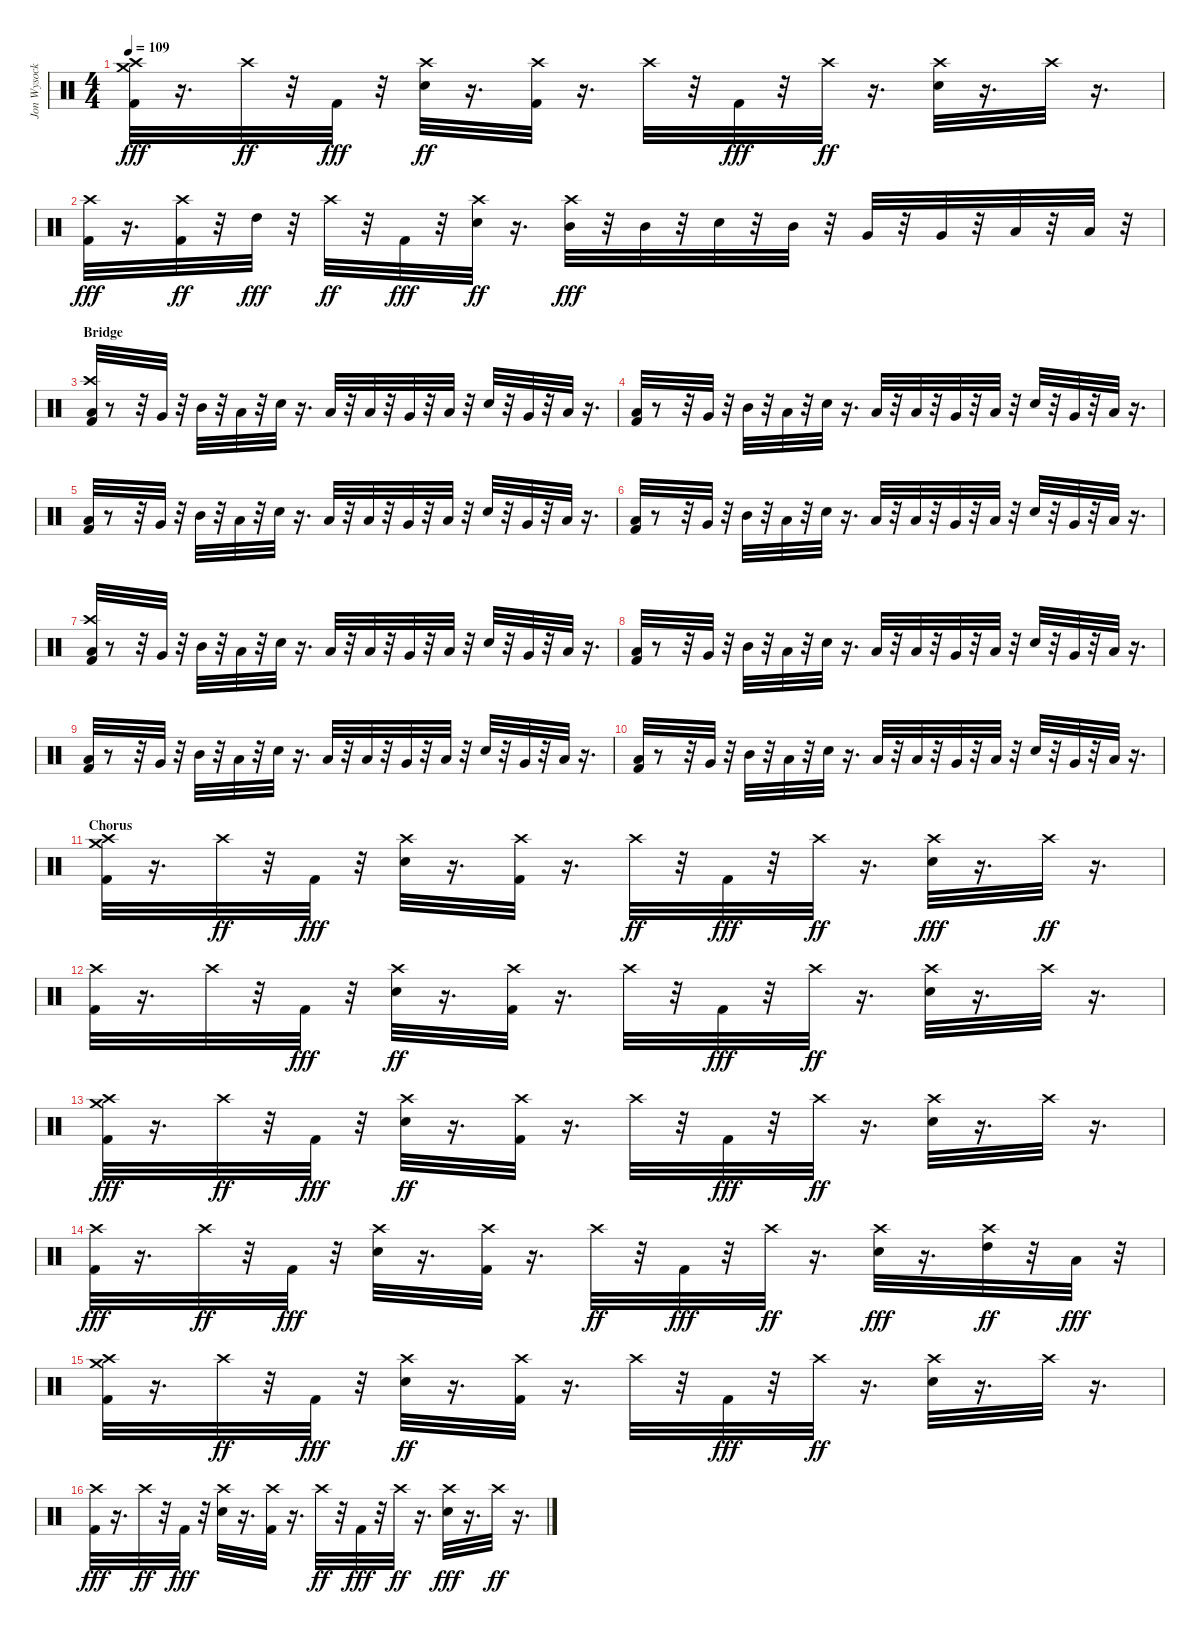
\track ("Jon Wysocki - Drums" "Jon Wysock") {instrument percussion}
\staff {score}
\articulation defaults
\ts (4 4)
\tempo 109
\clef neutral
\ks c
("Kick (hit) 2" "Crash high (hit)" "Crash medium (hit)").32{dy fff} r.16{d} "Crash high (hit)".32{dy ff} r.32 "Kick (hit) 2".32{dy fff} r.32 ("Electric Snare (hit)" "Crash high (hit)").32{dy ff} r.16{d} ("Kick (hit) 2" "Crash high (hit)").32 r.16{d} "Crash high (hit)".32 r.32 "Kick (hit) 2".32{dy fff} r.32 "Crash high (hit)".32{dy ff} r.16{d} ("Electric Snare (hit)" "Crash high (hit)").32 r.16{d} "Crash high (hit)".32 r.16{d} |
("Crash high (hit)" "Kick (hit) 2").32{dy fff} r.16{d} ("Kick (hit) 2" "Crash high (hit)").32{dy ff} r.32 "High Tom (hit)".32{dy fff} r.32 "Crash high (hit)".32{dy ff} r.32 "Kick (hit) 2".32{dy fff} r.32 ("Electric Snare (hit)" "Crash high (hit)").32{dy ff} r.16{d} ("Crash high (hit)" "Mid Tom (hit)").32{dy fff} r.32 "Mid Tom (hit)".32 r.32 "Electric Snare (hit)".32 r.32 "Mid Tom (hit)".32 r.32 "Very Low Tom (hit)".32 r.32 "Very Low Tom (hit)".32 r.32 "Low Floor Tom (hit)".32 r.32 "Low Floor Tom (hit)".32 r.32 |
\section ("" "Bridge")
("Low Tom (hit)" "Crash high (hit)" "Kick (hit) 2").32 r.8 r.32 "Very Low Tom (hit)".32 r.32 "Mid Tom (hit)".32 r.32 "Low Floor Tom (hit)".32 r.32 "Electric Snare (hit)".32 r.16{d} "Low Tom (hit)".32 r.32 "Low Tom (hit)".32 r.32 "Very Low Tom (hit)".32 r.32 "Low Floor Tom (hit)".32 r.32 "Electric Snare (hit)".32 r.32 "Very Low Tom (hit)".32 r.32 "Low Floor Tom (hit)".32 r.16{d} |
("Low Tom (hit)" "Kick (hit) 2").32 r.8 r.32 "Very Low Tom (hit)".32 r.32 "Mid Tom (hit)".32 r.32 "Low Floor Tom (hit)".32 r.32 "Electric Snare (hit)".32 r.16{d} "Low Tom (hit)".32 r.32 "Low Tom (hit)".32 r.32 "Very Low Tom (hit)".32 r.32 "Low Floor Tom (hit)".32 r.32 "Electric Snare (hit)".32 r.32 "Very Low Tom (hit)".32 r.32 "Low Floor Tom (hit)".32 r.16{d} |
("Low Tom (hit)" "Kick (hit) 2").32 r.8 r.32 "Very Low Tom (hit)".32 r.32 "Mid Tom (hit)".32 r.32 "Low Floor Tom (hit)".32 r.32 "Electric Snare (hit)".32 r.16{d} "Low Tom (hit)".32 r.32 "Low Tom (hit)".32 r.32 "Very Low Tom (hit)".32 r.32 "Low Floor Tom (hit)".32 r.32 "Electric Snare (hit)".32 r.32 "Very Low Tom (hit)".32 r.32 "Low Floor Tom (hit)".32 r.16{d} |
("Low Tom (hit)" "Kick (hit) 2").32 r.8 r.32 "Very Low Tom (hit)".32 r.32 "Mid Tom (hit)".32 r.32 "Low Floor Tom (hit)".32 r.32 "Electric Snare (hit)".32 r.16{d} "Low Tom (hit)".32 r.32 "Low Tom (hit)".32 r.32 "Very Low Tom (hit)".32 r.32 "Low Floor Tom (hit)".32 r.32 "Electric Snare (hit)".32 r.32 "Very Low Tom (hit)".32 r.32 "Low Floor Tom (hit)".32 r.16{d} |
("Kick (hit) 2" "Crash high (hit)" "Low Tom (hit)").32 r.8 r.32 "Very Low Tom (hit)".32 r.32 "Mid Tom (hit)".32 r.32 "Low Floor Tom (hit)".32 r.32 "Electric Snare (hit)".32 r.16{d} "Low Tom (hit)".32 r.32 "Low Tom (hit)".32 r.32 "Very Low Tom (hit)".32 r.32 "Low Floor Tom (hit)".32 r.32 "Electric Snare (hit)".32 r.32 "Very Low Tom (hit)".32 r.32 "Low Floor Tom (hit)".32 r.16{d} |
("Kick (hit) 2" "Low Tom (hit)").32 r.8 r.32 "Very Low Tom (hit)".32 r.32 "Mid Tom (hit)".32 r.32 "Low Floor Tom (hit)".32 r.32 "Electric Snare (hit)".32 r.16{d} "Low Tom (hit)".32 r.32 "Low Tom (hit)".32 r.32 "Very Low Tom (hit)".32 r.32 "Low Floor Tom (hit)".32 r.32 "Electric Snare (hit)".32 r.32 "Very Low Tom (hit)".32 r.32 "Low Floor Tom (hit)".32 r.16{d} |
("Kick (hit) 2" "Low Tom (hit)").32 r.8 r.32 "Very Low Tom (hit)".32 r.32 "Mid Tom (hit)".32 r.32 "Low Floor Tom (hit)".32 r.32 "Electric Snare (hit)".32 r.16{d} "Low Tom (hit)".32 r.32 "Low Tom (hit)".32 r.32 "Very Low Tom (hit)".32 r.32 "Low Floor Tom (hit)".32 r.32 "Electric Snare (hit)".32 r.32 "Very Low Tom (hit)".32 r.32 "Low Floor Tom (hit)".32 r.16{d} |
("Kick (hit) 2" "Low Tom (hit)").32 r.8 r.32 "Very Low Tom (hit)".32 r.32 "Mid Tom (hit)".32 r.32 "Low Floor Tom (hit)".32 r.32 "Electric Snare (hit)".32 r.16{d} "Low Tom (hit)".32 r.32 "Low Tom (hit)".32 r.32 "Very Low Tom (hit)".32 r.32 "Low Floor Tom (hit)".32 r.32 "Electric Snare (hit)".32 r.32 "Very Low Tom (hit)".32 r.32 "Low Floor Tom (hit)".32 r.16{d} |
\section ("" "Chorus")
("Crash medium (hit)" "Crash high (hit)" "Kick (hit) 2").32 r.16{d} "Crash high (hit)".32{dy ff} r.32 "Kick (hit) 2".32{dy fff} r.32 ("Crash high (hit)" "Electric Snare (hit)").32 r.16{d} ("Crash high (hit)" "Kick (hit) 2").32 r.16{d} "Crash high (hit)".32{dy ff} r.32 "Kick (hit) 2".32{dy fff} r.32 "Crash high (hit)".32{dy ff} r.16{d} ("Crash high (hit)" "Electric Snare (hit)").32{dy fff} r.16{d} "Crash high (hit)".32{dy ff} r.16{d} |
("Kick (hit) 2" "Crash high (hit)").32 r.16{d} "Crash high (hit)".32 r.32 "Kick (hit) 2".32{dy fff} r.32 ("Electric Snare (hit)" "Crash high (hit)").32{dy ff} r.16{d} ("Kick (hit) 2" "Crash high (hit)").32 r.16{d} "Crash high (hit)".32 r.32 "Kick (hit) 2".32{dy fff} r.32 "Crash high (hit)".32{dy ff} r.16{d} ("Electric Snare (hit)" "Crash high (hit)").32 r.16{d} "Crash high (hit)".32 r.16{d} |
("Kick (hit) 2" "Crash high (hit)" "Crash medium (hit)").32{dy fff} r.16{d} "Crash high (hit)".32{dy ff} r.32 "Kick (hit) 2".32{dy fff} r.32 ("Electric Snare (hit)" "Crash high (hit)").32{dy ff} r.16{d} ("Kick (hit) 2" "Crash high (hit)").32 r.16{d} "Crash high (hit)".32 r.32 "Kick (hit) 2".32{dy fff} r.32 "Crash high (hit)".32{dy ff} r.16{d} ("Electric Snare (hit)" "Crash high (hit)").32 r.16{d} "Crash high (hit)".32 r.16{d} |
("Crash high (hit)" "Kick (hit) 2").32{dy fff} r.16{d} "Crash high (hit)".32{dy ff} r.32 "Kick (hit) 2".32{dy fff} r.32 ("Crash high (hit)" "Electric Snare (hit)").32 r.16{d} ("Crash high (hit)" "Kick (hit) 2").32 r.16{d} "Crash high (hit)".32{dy ff} r.32 "Kick (hit) 2".32{dy fff} r.32 "Crash high (hit)".32{dy ff} r.16{d} ("Crash high (hit)" "Electric Snare (hit)").32{dy fff} r.16{d} ("High Tom (hit)" "Crash high (hit)").32{dy ff} r.32 "Low Tom (hit)".32{dy fff} r.32 |
("Kick (hit) 2" "Crash high (hit)" "Crash medium (hit)").32 r.16{d} "Crash high (hit)".32{dy ff} r.32 "Kick (hit) 2".32{dy fff} r.32 ("Electric Snare (hit)" "Crash high (hit)").32{dy ff} r.16{d} ("Kick (hit) 2" "Crash high (hit)").32 r.16{d} "Crash high (hit)".32 r.32 "Kick (hit) 2".32{dy fff} r.32 "Crash high (hit)".32{dy ff} r.16{d} ("Electric Snare (hit)" "Crash high (hit)").32 r.16{d} "Crash high (hit)".32 r.16{d} |
("Crash high (hit)" "Kick (hit) 2").32{dy fff} r.16{d} "Crash high (hit)".32{dy ff} r.32 "Kick (hit) 2".32{dy fff} r.32 ("Crash high (hit)" "Electric Snare (hit)").32 r.16{d} ("Crash high (hit)" "Kick (hit) 2").32 r.16{d} "Crash high (hit)".32{dy ff} r.32 "Kick (hit) 2".32{dy fff} r.32 "Crash high (hit)".32{dy ff} r.16{d} ("Crash high (hit)" "Electric Snare (hit)").32{dy fff} r.16{d} "Crash high (hit)".32{dy ff} r.16{d}
